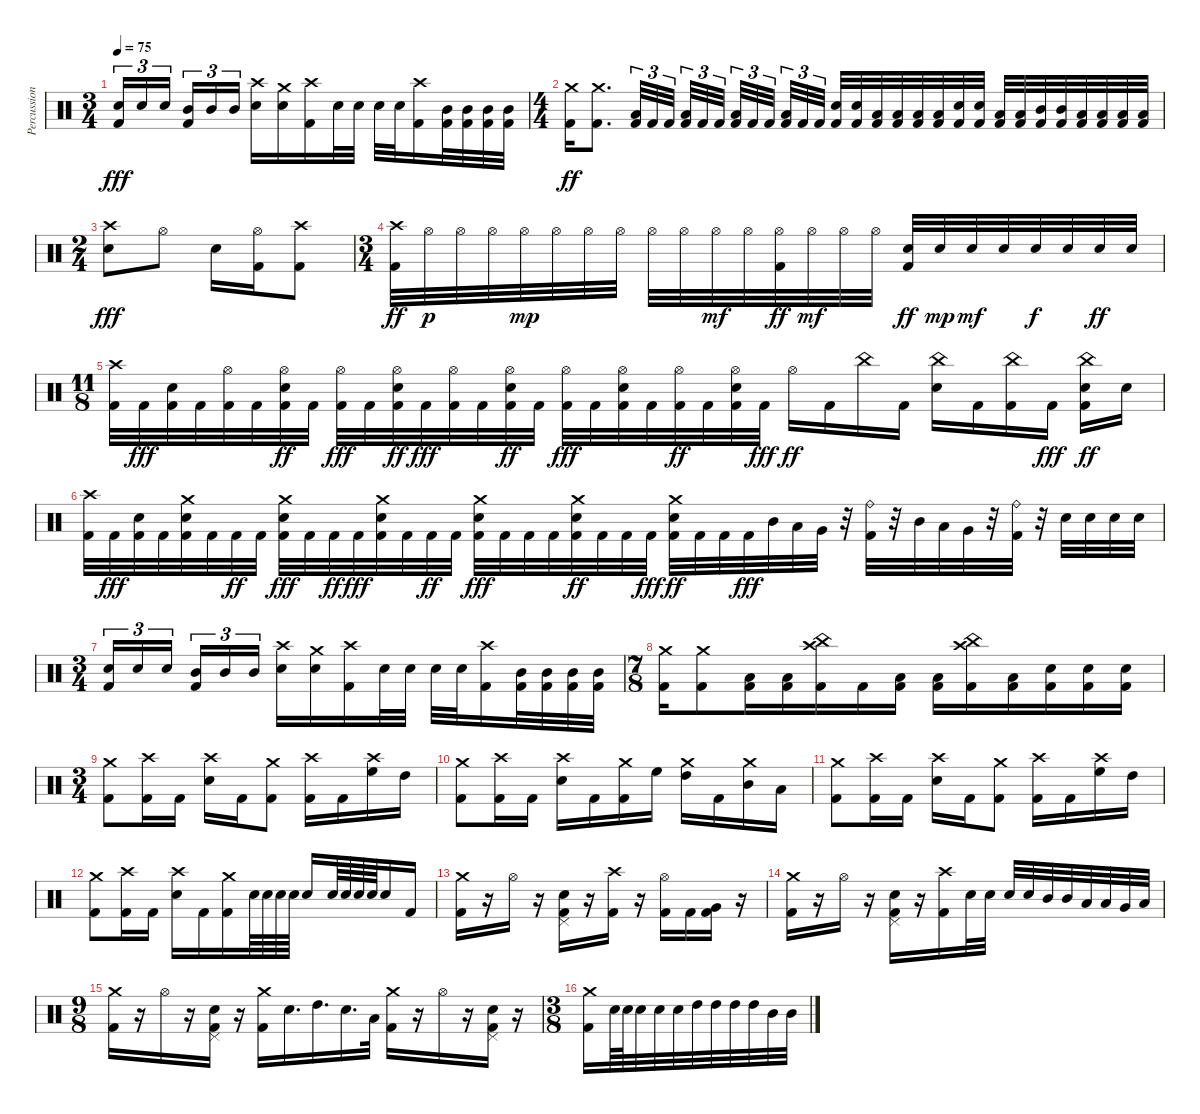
\track ("Percussion" "Percussion") {instrument percussion}
\staff {score}
\articulation defaults
\ts (3 4)
\tempo 75
\clef neutral
\ks c
("Electric Snare (hit)" "Kick (hit) 2").16{tu (3 2) dy fff} "Electric Snare (hit)".16{tu (3 2)} "Electric Snare (hit)".16{tu (3 2) beam splitsecondary} ("Mid Tom (hit)" "Kick (hit) 2").16{tu (3 2)} "Mid Tom (hit)".16{tu (3 2)} "Mid Tom (hit)".16{tu (3 2)} ("Crash high (hit)" "Electric Snare (hit)").16 ("Crash medium (hit)" "Electric Snare (hit)").16 ("Crash high (hit)" "Kick (hit) 2").16 "Electric Snare (hit)".32 "Electric Snare (hit)".32 "Electric Snare (hit)".32 "Electric Snare (hit)".32 ("Crash high (hit)" "Kick (hit) 2").16 ("Mid Tom (hit)" "Kick (hit) 2").32 ("Mid Tom (hit)" "Kick (hit) 2").32 ("Mid Tom (hit)" "Kick (hit) 2").32 ("Mid Tom (hit)" "Kick (hit) 2").32 |
\ts (4 4)
("Crash medium (hit)" "Kick (hit) 2").16{dy ff} ("Crash medium (hit)" "Kick (hit) 2").8{d} ("Low Tom (hit)" "Kick (hit) 2").32{tu (3 2)} "Kick (hit) 2".32{tu (3 2)} "Kick (hit) 2".32{tu (3 2) beam splitsecondary} ("Low Tom (hit)" "Kick (hit) 2").32{tu (3 2)} "Kick (hit) 2".32{tu (3 2)} "Kick (hit) 2".32{tu (3 2) beam splitsecondary} ("Low Tom (hit)" "Kick (hit) 2").32{tu (3 2)} "Kick (hit) 2".32{tu (3 2)} "Kick (hit) 2".32{tu (3 2) beam splitsecondary} ("Low Tom (hit)" "Kick (hit) 2").32{tu (3 2)} "Kick (hit) 2".32{tu (3 2)} "Kick (hit) 2".32{tu (3 2)} ("Electric Snare (hit)" "Kick (hit) 2").32 ("Electric Snare (hit)" "Kick (hit) 2").32 ("Low Tom (hit)" "Kick (hit) 2").32 ("Low Tom (hit)" "Kick (hit) 2").32 ("Low Tom (hit)" "Kick (hit) 2").32 ("Low Tom (hit)" "Kick (hit) 2").32 ("Electric Snare (hit)" "Kick (hit) 2").32 ("Electric Snare (hit)" "Kick (hit) 2").32 ("Low Tom (hit)" "Kick (hit) 2").32 ("Low Tom (hit)" "Kick (hit) 2").32 ("Mid Tom (hit)" "Kick (hit) 2").32 ("Mid Tom (hit)" "Kick (hit) 2").32 ("Low Tom (hit)" "Kick (hit) 2").32 ("Low Tom (hit)" "Kick (hit) 2").32 ("Low Tom (hit)" "Kick (hit) 2").32 ("Low Tom (hit)" "Kick (hit) 2").32 |
\ts (2 4)
("Crash high (hit)" "Electric Snare (hit)").8{dy fff} "Hi-Hat (open)".8 "Electric Snare (hit)".16 ("Hi-Hat (open)" "Kick (hit) 2").16 ("Crash high (hit)" "Kick (hit) 2").8 |
\ts (3 4)
("Crash high (hit)" "Kick (hit) 2").32{dy ff} "Hi-Hat (open)".32{dy p} "Hi-Hat (open)".32 "Hi-Hat (open)".32 "Hi-Hat (open)".32{dy mp} "Hi-Hat (open)".32 "Hi-Hat (open)".32 "Hi-Hat (open)".32 "Hi-Hat (open)".32 "Hi-Hat (open)".32 "Hi-Hat (open)".32{dy mf} "Hi-Hat (open)".32 ("Hi-Hat (open)" "Kick (hit) 2").32{dy ff} "Hi-Hat (open)".32{dy mf} "Hi-Hat (open)".32 "Hi-Hat (open)".32 ("Electric Snare (hit)" "Kick (hit) 2").32{dy ff} "Electric Snare (hit)".32{dy mp} "Electric Snare (hit)".32{dy mf} "Electric Snare (hit)".32 "Electric Snare (hit)".32{dy f} "Electric Snare (hit)".32 "Electric Snare (hit)".32{dy ff} "Electric Snare (hit)".32 |
\ts (11 8)
("Crash high (hit)" "Kick (hit) 2").32 "Kick (hit) 2".32{dy fff} ("Electric Snare (hit)" "Kick (hit) 2").32 "Kick (hit) 2".32 ("Hi-Hat (open)" "Kick (hit) 2").32 "Kick (hit) 2".32 ("Hi-Hat (open)" "Electric Snare (hit)" "Kick (hit) 2").32{dy ff} "Kick (hit) 2".32 ("Hi-Hat (open)" "Kick (hit) 2").32{dy fff} "Kick (hit) 2".32 ("Hi-Hat (open)" "Electric Snare (hit)" "Kick (hit) 2").32{dy ff} "Kick (hit) 2".32{dy fff} ("Hi-Hat (open)" "Kick (hit) 2").32 "Kick (hit) 2".32 ("Hi-Hat (open)" "Electric Snare (hit)" "Kick (hit) 2").32{dy ff} "Kick (hit) 2".32 ("Hi-Hat (open)" "Kick (hit) 2").32{dy fff} "Kick (hit) 2".32 ("Hi-Hat (open)" "Electric Snare (hit)" "Kick (hit) 2").32 "Kick (hit) 2".32 ("Hi-Hat (open)" "Kick (hit) 2").32{dy ff} "Kick (hit) 2".32 ("Hi-Hat (open)" "Electric Snare (hit)" "Kick (hit) 2").32 "Kick (hit) 2".32{dy fff} "Hi-Hat (open)".16{dy ff} "Kick (hit) 2".16 "China (hit)".16 "Kick (hit) 2".16 ("China (hit)" "Electric Snare (hit)").16 "Kick (hit) 2".16 ("China (hit)" "Kick (hit) 2").16 "Kick (hit) 2".16{dy fff} ("China (hit)" "Electric Snare (hit)" "Kick (hit) 2").16{dy ff} "Electric Snare (hit)".16 |
("Crash high (hit)" "Kick (hit) 2").32 "Kick (hit) 2".32{dy fff} ("Electric Snare (hit)" "Kick (hit) 2").32 "Kick (hit) 2".32 ("Crash medium (hit)" "Electric Snare (hit)" "Kick (hit) 2").32 "Kick (hit) 2".32 "Kick (hit) 2".32{dy ff} "Kick (hit) 2".32 ("Crash medium (hit)" "Electric Snare (hit)" "Kick (hit) 2").32{dy fff} "Kick (hit) 2".32 "Kick (hit) 2".32{dy ff} "Kick (hit) 2".32{dy fff} ("Crash medium (hit)" "Electric Snare (hit)" "Kick (hit) 2").32 "Kick (hit) 2".32 "Kick (hit) 2".32{dy ff} "Kick (hit) 2".32 ("Crash medium (hit)" "Electric Snare (hit)" "Kick (hit) 2").32{dy fff} "Kick (hit) 2".32 "Kick (hit) 2".32 "Kick (hit) 2".32 ("Crash medium (hit)" "Electric Snare (hit)" "Kick (hit) 2").32{dy ff} "Kick (hit) 2".32 "Kick (hit) 2".32 "Kick (hit) 2".32{dy fff} ("Crash medium (hit)" "Electric Snare (hit)" "Kick (hit) 2").32{dy ff} "Kick (hit) 2".32 "Kick (hit) 2".32 "Kick (hit) 2".32{dy fff} "Mid Tom (hit)".32 "Low Tom (hit)".32 "Very Low Tom (hit)".32 r.32 ("Ride (bell)" "Kick (hit) 2").32 r.32 "Mid Tom (hit)".32 "Low Tom (hit)".32 "Very Low Tom (hit)".32 r.32 ("Ride (bell)" "Kick (hit) 2").32 r.32 "Electric Snare (hit)".32 "Electric Snare (hit)".32 "Electric Snare (hit)".32 "Electric Snare (hit)".32 |
\ts (3 4)
("Electric Snare (hit)" "Kick (hit) 2").16{tu (3 2)} "Electric Snare (hit)".16{tu (3 2)} "Electric Snare (hit)".16{tu (3 2) beam splitsecondary} ("Mid Tom (hit)" "Kick (hit) 2").16{tu (3 2)} "Mid Tom (hit)".16{tu (3 2)} "Mid Tom (hit)".16{tu (3 2)} ("Crash high (hit)" "Electric Snare (hit)").16 ("Crash medium (hit)" "Electric Snare (hit)").16 ("Crash high (hit)" "Kick (hit) 2").16 "Electric Snare (hit)".32 "Electric Snare (hit)".32 "Electric Snare (hit)".32 "Electric Snare (hit)".32 ("Crash high (hit)" "Kick (hit) 2").16 ("Mid Tom (hit)" "Kick (hit) 2").32 ("Mid Tom (hit)" "Kick (hit) 2").32 ("Mid Tom (hit)" "Kick (hit) 2").32 ("Mid Tom (hit)" "Kick (hit) 2").32 |
\ts (7 8)
("Crash medium (hit)" "Kick (hit) 2").16 ("Crash medium (hit)" "Kick (hit) 2").8 ("Low Tom (hit)" "Kick (hit) 2").16 ("Low Tom (hit)" "Kick (hit) 2").16 ("China (hit)" "Crash high (hit)" "Kick (hit) 2").16 "Kick (hit) 2".16 ("Low Tom (hit)" "Kick (hit) 2").16 ("Low Tom (hit)" "Kick (hit) 2").16 ("China (hit)" "Crash high (hit)" "Kick (hit) 2").16 ("Low Tom (hit)" "Kick (hit) 2").16 ("Electric Snare (hit)" "Kick (hit) 2").16 ("Electric Snare (hit)" "Kick (hit) 2").16 ("Electric Snare (hit)" "Kick (hit) 2").16 |
\ts (3 4)
("Crash medium (hit)" "Kick (hit) 2").8 ("Crash high (hit)" "Kick (hit) 2").16 "Kick (hit) 2".16 ("Crash high (hit)" "Electric Snare (hit)").16 "Kick (hit) 2".16 ("Crash medium (hit)" "Kick (hit) 2").8 ("Crash high (hit)" "Kick (hit) 2").16 "Kick (hit) 2".16 ("Crash high (hit)" "High Floor Tom (hit)").16 "High Tom (hit)".16 |
("Crash medium (hit)" "Kick (hit) 2").8 ("Crash high (hit)" "Kick (hit) 2").16 "Kick (hit) 2".16 ("Crash high (hit)" "Electric Snare (hit)").16 "Kick (hit) 2".16 ("Crash medium (hit)" "Kick (hit) 2").16 "High Floor Tom (hit)".16 ("Crash medium (hit)" "High Tom (hit)").16 "Kick (hit) 2".16 ("Crash medium (hit)" "Mid Tom (hit)").16 "Low Tom (hit)".16 |
("Crash medium (hit)" "Kick (hit) 2").8 ("Crash high (hit)" "Kick (hit) 2").16 "Kick (hit) 2".16 ("Crash high (hit)" "Electric Snare (hit)").16 "Kick (hit) 2".16 ("Crash medium (hit)" "Kick (hit) 2").8 ("Crash high (hit)" "Kick (hit) 2").16 "Kick (hit) 2".16 ("Crash high (hit)" "High Floor Tom (hit)").16 "High Tom (hit)".16 |
("Crash medium (hit)" "Kick (hit) 2").8 ("Crash high (hit)" "Kick (hit) 2").16 "Kick (hit) 2".16 ("Crash high (hit)" "Electric Snare (hit)").16 "Kick (hit) 2".16 ("Crash medium (hit)" "Kick (hit) 2").16 "Electric Snare (hit)".64 "Electric Snare (hit)".64 "Electric Snare (hit)".64 "Electric Snare (hit)".64 "Electric Snare (hit)".16 "Electric Snare (hit)".64 "Electric Snare (hit)".64 "Electric Snare (hit)".64 "Electric Snare (hit)".64 "Electric Snare (hit)".16 "Kick (hit) 2".16 |
("Crash medium (hit)" "Kick (hit) 2").16 r.16 "Hi-Hat (open)".16 r.16 ("Pedal Hi-Hat (hit)" "Electric Snare (hit)" "Kick (hit) 2").16 r.16 ("Crash high (hit)" "Kick (hit) 2").16 r.16 ("Hi-Hat (open)" "Kick (hit) 2").16 "Kick (hit) 2".16 ("Very Low Tom (hit)" "Kick (hit) 2").16 r.16 |
("Crash medium (hit)" "Kick (hit) 2").16 r.16 "Hi-Hat (open)".16 r.16 ("Pedal Hi-Hat (hit)" "Electric Snare (hit)" "Kick (hit) 2").16 r.16 ("Crash high (hit)" "Kick (hit) 2").16 "Electric Snare (hit)".32 "Electric Snare (hit)".32 "Electric Snare (hit)".32 "Electric Snare (hit)".32 "Mid Tom (hit)".32 "Mid Tom (hit)".32 "Low Tom (hit)".32 "Low Tom (hit)".32 "Very Low Tom (hit)".32 "Low Floor Tom (hit)".32 |
\ts (9 8)
("Crash medium (hit)" "Kick (hit) 2").16 r.16 "Hi-Hat (open)".16 r.16 ("Pedal Hi-Hat (hit)" "Electric Snare (hit)" "Kick (hit) 2").16 r.16 ("Crash medium (hit)" "Kick (hit) 2").16 "Electric Snare (hit)".16{d} "High Tom (hit)".16{d} "Electric Snare (hit)".16{d} "Low Tom (hit)".32 ("Crash medium (hit)" "Kick (hit) 2").16 r.16 "Hi-Hat (open)".16 r.16 ("Pedal Hi-Hat (hit)" "Electric Snare (hit)" "Kick (hit) 2").16 r.16 |
\ts (3 8)
("Crash medium (hit)" "Kick (hit) 2").16 "Electric Snare (hit)".64 "Electric Snare (hit)".64 "Electric Snare (hit)".32 "Electric Snare (hit)".32 "Electric Snare (hit)".32 "High Tom (hit)".32 "High Tom (hit)".32 "High Tom (hit)".32 "High Tom (hit)".32 "Mid Tom (hit)".32 "Mid Tom (hit)".32
